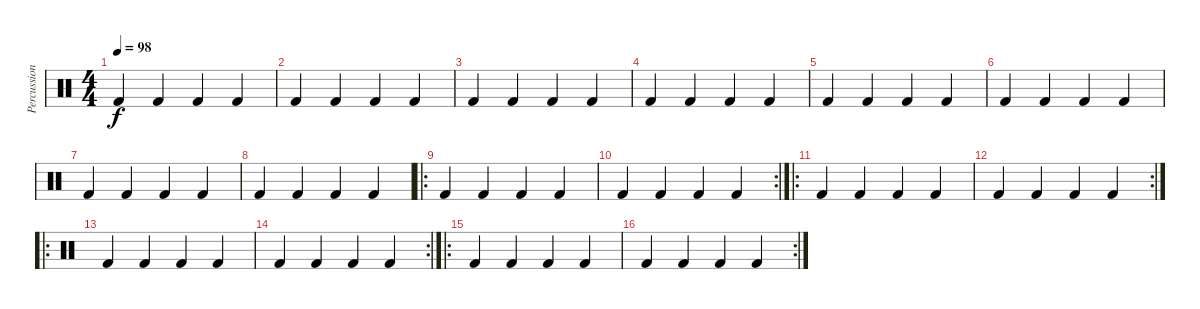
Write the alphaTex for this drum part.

\track ("Percussion" "Percussion") {instrument percussion}
\staff {score}
\articulation defaults
\ts (4 4)
\tempo 98
\clef neutral
\ks c "Kick (hit) 2".4{dy f} "Kick (hit) 2".4 "Kick (hit) 2".4 "Kick (hit) 2".4
|
"Kick (hit) 2".4 "Kick (hit) 2".4 "Kick (hit) 2".4 "Kick (hit) 2".4 |
"Kick (hit) 2".4 "Kick (hit) 2".4 "Kick (hit) 2".4 "Kick (hit) 2".4 |
"Kick (hit) 2".4 "Kick (hit) 2".4 "Kick (hit) 2".4 "Kick (hit) 2".4 |
"Kick (hit) 2".4 "Kick (hit) 2".4 "Kick (hit) 2".4 "Kick (hit) 2".4 |
"Kick (hit) 2".4 "Kick (hit) 2".4 "Kick (hit) 2".4 "Kick (hit) 2".4 |
"Kick (hit) 2".4 "Kick (hit) 2".4 "Kick (hit) 2".4 "Kick (hit) 2".4 |
"Kick (hit) 2".4 "Kick (hit) 2".4 "Kick (hit) 2".4 "Kick (hit) 2".4 |
\ro "Kick (hit) 2".4 "Kick (hit) 2".4 "Kick (hit) 2".4 "Kick (hit) 2".4
|
\rc 2 "Kick (hit) 2".4 "Kick (hit) 2".4 "Kick (hit) 2".4 "Kick (hit) 2".4
|
\ro "Kick (hit) 2".4 "Kick (hit) 2".4 "Kick (hit) 2".4 "Kick (hit) 2".4
|
\rc 2 "Kick (hit) 2".4 "Kick (hit) 2".4 "Kick (hit) 2".4 "Kick (hit) 2".4
|
\ro "Kick (hit) 2".4 "Kick (hit) 2".4 "Kick (hit) 2".4 "Kick (hit) 2".4
|
\rc 2 "Kick (hit) 2".4 "Kick (hit) 2".4 "Kick (hit) 2".4 "Kick (hit) 2".4
|
\ro "Kick (hit) 2".4 "Kick (hit) 2".4 "Kick (hit) 2".4 "Kick (hit) 2".4
|
\rc 2 "Kick (hit) 2".4 "Kick (hit) 2".4 "Kick (hit) 2".4 "Kick (hit) 2".4
